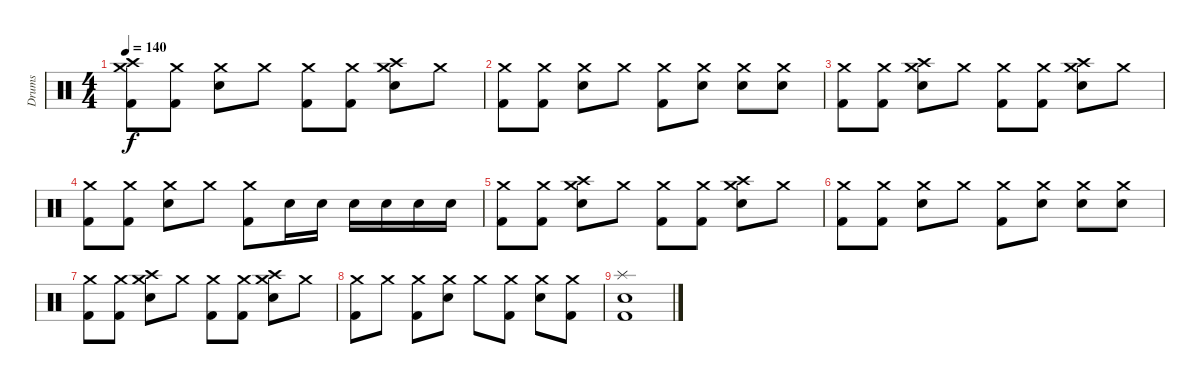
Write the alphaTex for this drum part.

\track ("Drums" "Drums") {instrument percussion}
\staff {score}
\articulation defaults
\ts (4 4)
\tempo 140
\clef neutral
\ks c
("Crash medium (hit)" "Crash high (hit)" "Kick (hit) 2").8{dy f} ("Crash medium (hit)" "Kick (hit) 2").8 ("Crash medium (hit)" "Electric Snare (hit)").8 "Crash medium (hit)".8 ("Crash medium (hit)" "Kick (hit) 2").8 ("Crash medium (hit)" "Kick (hit) 2").8 ("Crash medium (hit)" "Crash high (hit)" "Electric Snare (hit)").8 "Crash medium (hit)".8 |
("Crash medium (hit)" "Kick (hit) 2").8 ("Crash medium (hit)" "Kick (hit) 2").8 ("Crash medium (hit)" "Electric Snare (hit)").8 "Crash medium (hit)".8 ("Crash medium (hit)" "Kick (hit) 2").8 ("Crash medium (hit)" "Electric Snare (hit)").8 ("Crash medium (hit)" "Electric Snare (hit)").8 ("Crash medium (hit)" "Electric Snare (hit)").8 |
("Crash medium (hit)" "Kick (hit) 2").8 ("Crash medium (hit)" "Kick (hit) 2").8 ("Crash medium (hit)" "Crash high (hit)" "Electric Snare (hit)").8 "Crash medium (hit)".8 ("Crash medium (hit)" "Kick (hit) 2").8 ("Crash medium (hit)" "Kick (hit) 2").8 ("Crash medium (hit)" "Crash high (hit)" "Electric Snare (hit)").8 "Crash medium (hit)".8 |
("Crash medium (hit)" "Kick (hit) 2").8 ("Crash medium (hit)" "Kick (hit) 2").8 ("Crash medium (hit)" "Electric Snare (hit)").8 "Crash medium (hit)".8 ("Crash medium (hit)" "Kick (hit) 2").8 "Electric Snare (hit)".16 "Electric Snare (hit)".16 "Electric Snare (hit)".16 "Electric Snare (hit)".16 "Electric Snare (hit)".16 "Electric Snare (hit)".16 |
("Crash medium (hit)" "Kick (hit) 2").8 ("Crash medium (hit)" "Kick (hit) 2").8 ("Crash medium (hit)" "Crash high (hit)" "Electric Snare (hit)").8 "Crash medium (hit)".8 ("Crash medium (hit)" "Kick (hit) 2").8 ("Crash medium (hit)" "Kick (hit) 2").8 ("Crash medium (hit)" "Crash high (hit)" "Electric Snare (hit)").8 "Crash medium (hit)".8 |
("Crash medium (hit)" "Kick (hit) 2").8 ("Crash medium (hit)" "Kick (hit) 2").8 ("Crash medium (hit)" "Electric Snare (hit)").8 "Crash medium (hit)".8 ("Crash medium (hit)" "Kick (hit) 2").8 ("Crash medium (hit)" "Electric Snare (hit)").8 ("Crash medium (hit)" "Electric Snare (hit)").8 ("Crash medium (hit)" "Electric Snare (hit)").8 |
("Crash medium (hit)" "Kick (hit) 2").8 ("Crash medium (hit)" "Kick (hit) 2").8 ("Crash medium (hit)" "Crash high (hit)" "Electric Snare (hit)").8 "Crash medium (hit)".8 ("Crash medium (hit)" "Kick (hit) 2").8 ("Crash medium (hit)" "Kick (hit) 2").8 ("Crash medium (hit)" "Crash high (hit)" "Electric Snare (hit)").8 "Crash medium (hit)".8 |
("Crash medium (hit)" "Kick (hit) 2").8 "Crash medium (hit)".8 ("Crash medium (hit)" "Kick (hit) 2").8 ("Crash medium (hit)" "Electric Snare (hit)").8 "Crash medium (hit)".8 ("Crash medium (hit)" "Kick (hit) 2").8 ("Crash medium (hit)" "Electric Snare (hit)").8 ("Crash medium (hit)" "Kick (hit) 2").8 |
("Splash (hit)" "Electric Snare (hit)" "Kick (hit) 2").1
